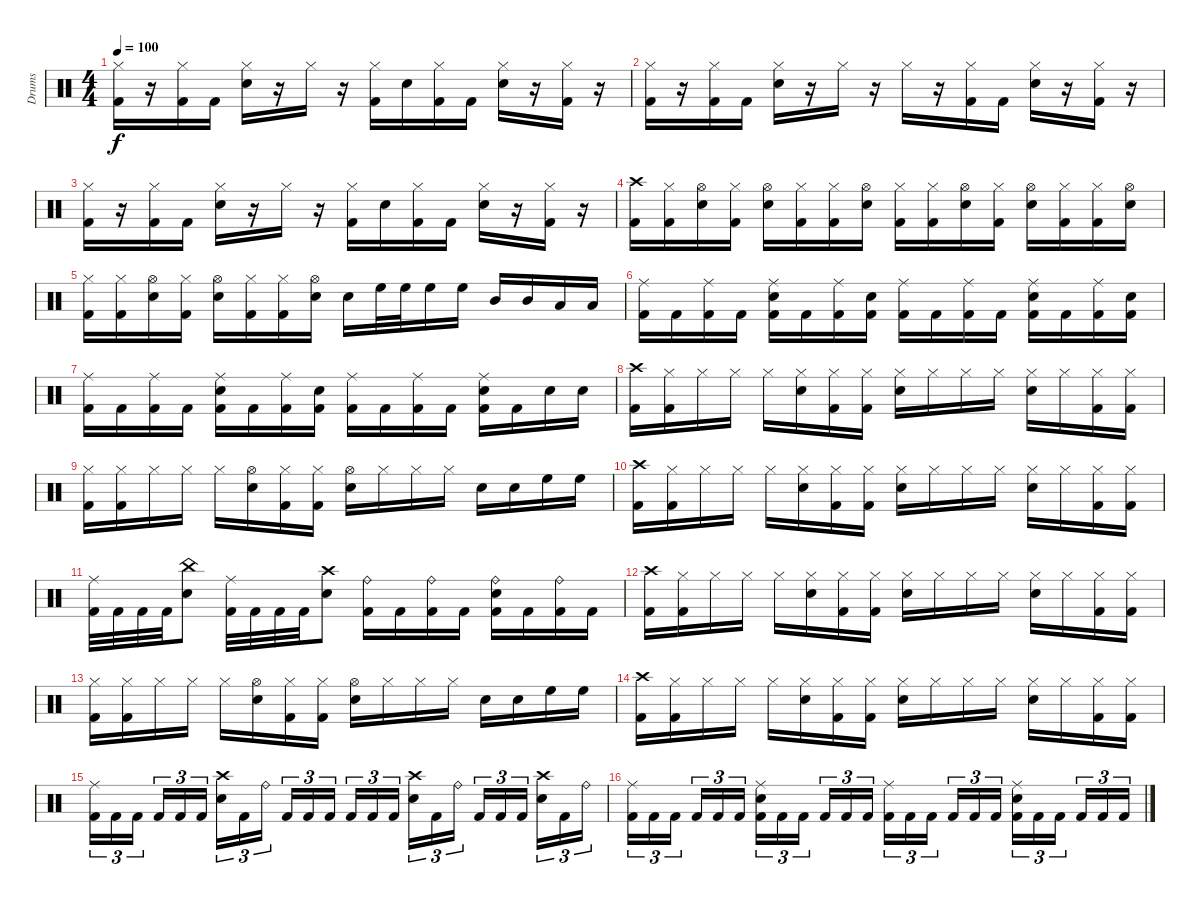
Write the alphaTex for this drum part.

\track ("Drums" "Drums") {instrument percussion}
\staff {score}
\articulation defaults
\ts (4 4)
\tempo 100
\clef neutral
\ks c
("Hi-Hat (closed)" "Kick (hit) 2").16{dy f} r.16 ("Hi-Hat (closed)" "Kick (hit) 2").16 "Kick (hit) 2".16 ("Hi-Hat (closed)" "Snare (hit) 2").16 r.16 "Hi-Hat (closed)".16 r.16 ("Hi-Hat (closed)" "Kick (hit) 2").16 "Snare (hit) 2".16 ("Hi-Hat (closed)" "Kick (hit) 2").16 "Kick (hit) 2".16 ("Hi-Hat (closed)" "Snare (hit) 2").16 r.16 ("Hi-Hat (closed)" "Kick (hit) 2").16 r.16 |
("Hi-Hat (closed)" "Kick (hit) 2").16 r.16 ("Hi-Hat (closed)" "Kick (hit) 2").16 "Kick (hit) 2".16 ("Hi-Hat (closed)" "Snare (hit) 2").16 r.16 "Hi-Hat (closed)".16 r.16 "Hi-Hat (closed)".16 r.16 ("Hi-Hat (closed)" "Kick (hit) 2").16 "Kick (hit) 2".16 ("Hi-Hat (closed)" "Snare (hit) 2").16 r.16 ("Hi-Hat (closed)" "Kick (hit) 2").16 r.16 |
("Hi-Hat (closed)" "Kick (hit) 2").16 r.16 ("Hi-Hat (closed)" "Kick (hit) 2").16 "Kick (hit) 2".16 ("Hi-Hat (closed)" "Snare (hit) 2").16 r.16 "Hi-Hat (closed)".16 r.16 ("Hi-Hat (closed)" "Kick (hit) 2").16 "Snare (hit) 2".16 ("Hi-Hat (closed)" "Kick (hit) 2").16 "Kick (hit) 2".16 ("Hi-Hat (closed)" "Snare (hit) 2").16 r.16 ("Hi-Hat (closed)" "Kick (hit) 2").16 r.16 |
("Crash high (hit)" "Kick (hit) 2").16 ("Hi-Hat (closed)" "Kick (hit) 2").16 ("Hi-Hat (open)" "Snare (hit) 2").16 ("Hi-Hat (closed)" "Kick (hit) 2").16 ("Hi-Hat (open)" "Snare (hit) 2").16 ("Hi-Hat (closed)" "Kick (hit) 2").16 ("Hi-Hat (closed)" "Kick (hit) 2").16 ("Hi-Hat (open)" "Snare (hit) 2").16 ("Hi-Hat (closed)" "Kick (hit) 2").16 ("Hi-Hat (closed)" "Kick (hit) 2").16 ("Hi-Hat (open)" "Snare (hit) 2").16 ("Hi-Hat (closed)" "Kick (hit) 2").16 ("Hi-Hat (open)" "Snare (hit) 2").16 ("Hi-Hat (closed)" "Kick (hit) 2").16 ("Hi-Hat (closed)" "Kick (hit) 2").16 ("Hi-Hat (open)" "Snare (hit) 2").16 |
("Hi-Hat (closed)" "Kick (hit) 2").16 ("Hi-Hat (closed)" "Kick (hit) 2").16 ("Hi-Hat (open)" "Snare (hit) 2").16 ("Hi-Hat (closed)" "Kick (hit) 2").16 ("Hi-Hat (open)" "Snare (hit) 2").16 ("Hi-Hat (closed)" "Kick (hit) 2").16 ("Hi-Hat (closed)" "Kick (hit) 2").16 ("Hi-Hat (open)" "Snare (hit) 2").16 "Snare (hit) 2".16 "High Floor Tom (hit)".32 "High Floor Tom (hit)".32 "High Floor Tom (hit)".16 "High Floor Tom (hit)".16 "Mid Tom (hit)".16 "Mid Tom (hit)".16 "Low Tom (hit)".16 "Low Tom (hit)".16 |
("Ride (middle)" "Kick (hit) 2").16 "Kick (hit) 2".16 ("Ride (middle)" "Kick (hit) 2").16 "Kick (hit) 2".16 ("Ride (middle)" "Snare (hit) 2" "Kick (hit) 2").16 "Kick (hit) 2".16 ("Ride (middle)" "Kick (hit) 2").16 ("Snare (hit) 2" "Kick (hit) 2").16 ("Ride (middle)" "Kick (hit) 2").16 "Kick (hit) 2".16 ("Ride (middle)" "Kick (hit) 2").16 "Kick (hit) 2".16 ("Ride (middle)" "Snare (hit) 2" "Kick (hit) 2").16 "Kick (hit) 2".16 ("Ride (middle)" "Kick (hit) 2").16 ("Snare (hit) 2" "Kick (hit) 2").16 |
("Ride (middle)" "Kick (hit) 2").16 "Kick (hit) 2".16 ("Ride (middle)" "Kick (hit) 2").16 "Kick (hit) 2".16 ("Ride (middle)" "Snare (hit) 2" "Kick (hit) 2").16 "Kick (hit) 2".16 ("Ride (middle)" "Kick (hit) 2").16 ("Snare (hit) 2" "Kick (hit) 2").16 ("Ride (middle)" "Kick (hit) 2").16 "Kick (hit) 2".16 ("Ride (middle)" "Kick (hit) 2").16 "Kick (hit) 2".16 ("Ride (middle)" "Snare (hit) 2" "Kick (hit) 2").16 "Kick (hit) 2".16 "Snare (hit) 2".16 "Snare (hit) 2".16 |
("Crash high (hit)" "Kick (hit) 2").16 ("Hi-Hat (closed)" "Kick (hit) 2").16 "Hi-Hat (closed)".16 "Hi-Hat (closed)".16 "Hi-Hat (closed)".16 ("Hi-Hat (closed)" "Snare (hit) 2").16 ("Hi-Hat (closed)" "Kick (hit) 2").16 ("Hi-Hat (closed)" "Kick (hit) 2").16 ("Hi-Hat (closed)" "Snare (hit) 2").16 "Hi-Hat (closed)".16 "Hi-Hat (closed)".16 "Hi-Hat (closed)".16 ("Hi-Hat (closed)" "Snare (hit) 2").16 "Hi-Hat (closed)".16 ("Hi-Hat (closed)" "Kick (hit) 2").16 ("Hi-Hat (closed)" "Kick (hit) 2").16 |
("Hi-Hat (closed)" "Kick (hit) 2").16 ("Hi-Hat (closed)" "Kick (hit) 2").16 "Hi-Hat (closed)".16 "Hi-Hat (closed)".16 "Hi-Hat (closed)".16 ("Hi-Hat (open)" "Snare (hit) 2").16 ("Hi-Hat (closed)" "Kick (hit) 2").16 ("Hi-Hat (closed)" "Kick (hit) 2").16 ("Hi-Hat (open)" "Snare (hit) 2").16 "Hi-Hat (closed)".16 "Hi-Hat (closed)".16 "Hi-Hat (closed)".16 "Snare (hit) 2".16 "Snare (hit) 2".16 "High Floor Tom (hit)".16 "High Floor Tom (hit)".16 |
("Crash high (hit)" "Kick (hit) 2").16 ("Hi-Hat (closed)" "Kick (hit) 2").16 "Hi-Hat (closed)".16 "Hi-Hat (closed)".16 "Hi-Hat (closed)".16 ("Hi-Hat (closed)" "Snare (hit) 2").16 ("Hi-Hat (closed)" "Kick (hit) 2").16 ("Hi-Hat (closed)" "Kick (hit) 2").16 ("Hi-Hat (closed)" "Snare (hit) 2").16 "Hi-Hat (closed)".16 "Hi-Hat (closed)".16 "Hi-Hat (closed)".16 ("Hi-Hat (closed)" "Snare (hit) 2").16 "Hi-Hat (closed)".16 ("Hi-Hat (closed)" "Kick (hit) 2").16 ("Hi-Hat (closed)" "Kick (hit) 2").16 |
("Ride (middle)" "Kick (hit) 2").32 "Kick (hit) 2".32 "Kick (hit) 2".32 "Kick (hit) 2".32 ("China (hit)" "Snare (hit) 2").8 ("Ride (middle)" "Kick (hit) 2").32 "Kick (hit) 2".32 "Kick (hit) 2".32 "Kick (hit) 2".32 ("Crash high (hit)" "Snare (hit) 2").8 ("Ride (bell)" "Kick (hit) 2").16 "Kick (hit) 2".16 ("Ride (bell)" "Kick (hit) 2").16 "Kick (hit) 2".16 ("Ride (bell)" "Snare (hit) 2" "Kick (hit) 2").16 "Kick (hit) 2".16 ("Ride (bell)" "Kick (hit) 2").16 "Kick (hit) 2".16 |
("Crash high (hit)" "Kick (hit) 2").16 ("Hi-Hat (closed)" "Kick (hit) 2").16 "Hi-Hat (closed)".16 "Hi-Hat (closed)".16 "Hi-Hat (closed)".16 ("Hi-Hat (closed)" "Snare (hit) 2").16 ("Hi-Hat (closed)" "Kick (hit) 2").16 ("Hi-Hat (closed)" "Kick (hit) 2").16 ("Hi-Hat (closed)" "Snare (hit) 2").16 "Hi-Hat (closed)".16 "Hi-Hat (closed)".16 "Hi-Hat (closed)".16 ("Hi-Hat (closed)" "Snare (hit) 2").16 "Hi-Hat (closed)".16 ("Hi-Hat (closed)" "Kick (hit) 2").16 ("Hi-Hat (closed)" "Kick (hit) 2").16 |
("Hi-Hat (closed)" "Kick (hit) 2").16 ("Hi-Hat (closed)" "Kick (hit) 2").16 "Hi-Hat (closed)".16 "Hi-Hat (closed)".16 "Hi-Hat (closed)".16 ("Hi-Hat (open)" "Snare (hit) 2").16 ("Hi-Hat (closed)" "Kick (hit) 2").16 ("Hi-Hat (closed)" "Kick (hit) 2").16 ("Hi-Hat (open)" "Snare (hit) 2").16 "Hi-Hat (closed)".16 "Hi-Hat (closed)".16 "Hi-Hat (closed)".16 "Snare (hit) 2".16 "Snare (hit) 2".16 "High Floor Tom (hit)".16 "High Floor Tom (hit)".16 |
("Crash high (hit)" "Kick (hit) 2").16 ("Hi-Hat (closed)" "Kick (hit) 2").16 "Hi-Hat (closed)".16 "Hi-Hat (closed)".16 "Hi-Hat (closed)".16 ("Hi-Hat (closed)" "Snare (hit) 2").16 ("Hi-Hat (closed)" "Kick (hit) 2").16 ("Hi-Hat (closed)" "Kick (hit) 2").16 ("Hi-Hat (closed)" "Snare (hit) 2").16 "Hi-Hat (closed)".16 "Hi-Hat (closed)".16 "Hi-Hat (closed)".16 ("Hi-Hat (closed)" "Snare (hit) 2").16 "Hi-Hat (closed)".16 ("Hi-Hat (closed)" "Kick (hit) 2").16 ("Hi-Hat (closed)" "Kick (hit) 2").16 |
("Ride (middle)" "Kick (hit) 2").16{tu (3 2)} "Kick (hit) 2".16{tu (3 2)} "Kick (hit) 2".16{tu (3 2)} "Kick (hit) 2".16{tu (3 2)} "Kick (hit) 2".16{tu (3 2)} "Kick (hit) 2".16{tu (3 2)} ("Crash high (hit)" "Snare (hit) 2").16{tu (3 2)} "Kick (hit) 2".16{tu (3 2)} "Ride (bell)".16{tu (3 2)} "Kick (hit) 2".16{tu (3 2)} "Kick (hit) 2".16{tu (3 2)} "Kick (hit) 2".16{tu (3 2)} "Kick (hit) 2".16{tu (3 2)} "Kick (hit) 2".16{tu (3 2)} "Kick (hit) 2".16{tu (3 2)} ("Crash high (hit)" "Snare (hit) 2").16{tu (3 2)} "Kick (hit) 2".16{tu (3 2)} "Ride (bell)".16{tu (3 2)} "Kick (hit) 2".16{tu (3 2)} "Kick (hit) 2".16{tu (3 2)} "Kick (hit) 2".16{tu (3 2)} ("Crash high (hit)" "Snare (hit) 2").16{tu (3 2)} "Kick (hit) 2".16{tu (3 2)} "Ride (bell)".16{tu (3 2)} |
("Ride (middle)" "Kick (hit) 2").16{tu (3 2)} "Kick (hit) 2".16{tu (3 2)} "Kick (hit) 2".16{tu (3 2)} "Kick (hit) 2".16{tu (3 2)} "Kick (hit) 2".16{tu (3 2)} "Kick (hit) 2".16{tu (3 2)} ("Ride (middle)" "Snare (hit) 2" "Kick (hit) 2").16{tu (3 2)} "Kick (hit) 2".16{tu (3 2)} "Kick (hit) 2".16{tu (3 2)} "Kick (hit) 2".16{tu (3 2)} "Kick (hit) 2".16{tu (3 2)} "Kick (hit) 2".16{tu (3 2)} ("Ride (middle)" "Kick (hit) 2").16{tu (3 2)} "Kick (hit) 2".16{tu (3 2)} "Kick (hit) 2".16{tu (3 2)} "Kick (hit) 2".16{tu (3 2)} "Kick (hit) 2".16{tu (3 2)} "Kick (hit) 2".16{tu (3 2)} ("Ride (middle)" "Snare (hit) 2" "Kick (hit) 2").16{tu (3 2)} "Kick (hit) 2".16{tu (3 2)} "Kick (hit) 2".16{tu (3 2)} "Kick (hit) 2".16{tu (3 2)} "Kick (hit) 2".16{tu (3 2)} "Kick (hit) 2".16{tu (3 2)}
